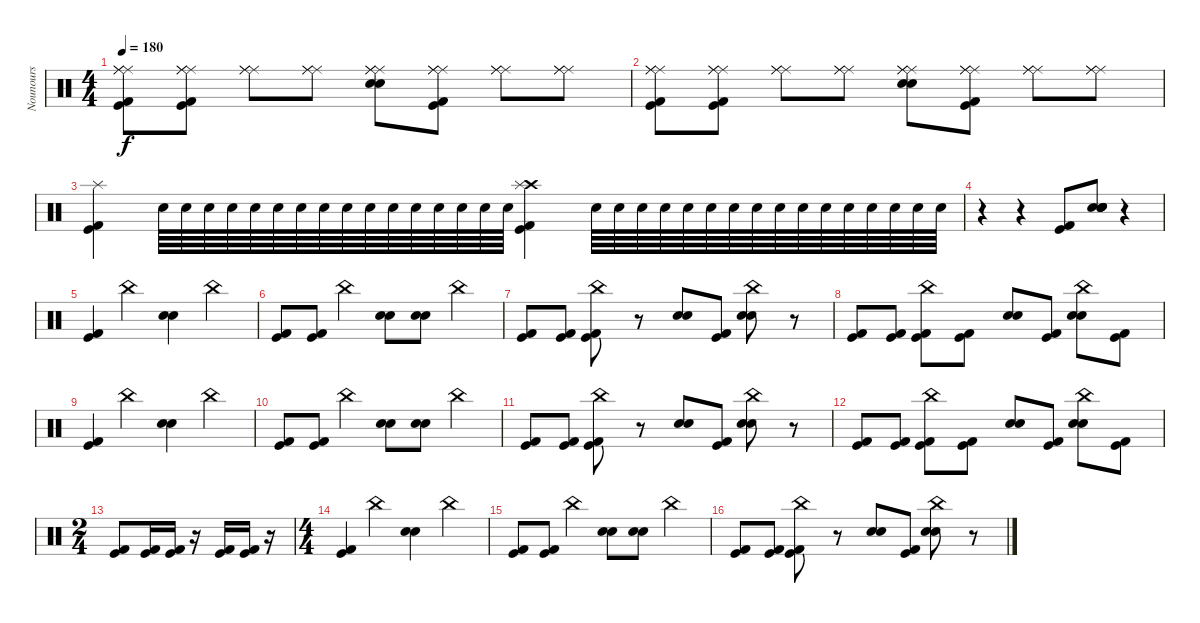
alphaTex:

\track ("Nounours" "Nounours") {instrument percussion}
\staff {score}
\articulation defaults
\ts (4 4)
\tempo 180
\clef neutral
\ks c
("Ride (middle)" "Ride (middle)" "Ride (middle)" "Kick (hit) 2" "Kick (hit)").8{dy f} ("Ride (middle)" "Ride (middle)" "Ride (middle)" "Kick (hit) 2" "Kick (hit)").8 ("Ride (middle)" "Ride (middle)" "Ride (middle)").8 ("Ride (middle)" "Ride (middle)" "Ride (middle)").8 ("Ride (middle)" "Ride (middle)" "Ride (middle)" "Electric Snare (hit)" "Snare (hit) 2").8 ("Ride (middle)" "Ride (middle)" "Kick (hit)" "Kick (hit) 2" "Ride (middle)").8 ("Ride (middle)" "Ride (middle)" "Ride (middle)").8 ("Ride (middle)" "Ride (middle)" "Ride (middle)").8 |
("Ride (middle)" "Ride (middle)" "Ride (middle)" "Kick (hit) 2" "Kick (hit)").8 ("Ride (middle)" "Ride (middle)" "Ride (middle)" "Kick (hit) 2" "Kick (hit)").8 ("Ride (middle)" "Ride (middle)" "Ride (middle)").8 ("Ride (middle)" "Ride (middle)" "Ride (middle)").8 ("Ride (middle)" "Ride (middle)" "Ride (middle)" "Electric Snare (hit)" "Snare (hit) 2").8 ("Ride (middle)" "Ride (middle)" "Kick (hit)" "Kick (hit) 2" "Ride (middle)").8 ("Ride (middle)" "Ride (middle)" "Ride (middle)").8 ("Ride (middle)" "Ride (middle)" "Ride (middle)").8 |
("Splash (hit)" "Kick (hit) 2" "Kick (hit)").4 "Snare (hit) 2".64 "Snare (hit) 2".64 "Snare (hit) 2".64 "Snare (hit) 2".64 "Snare (hit) 2".64 "Snare (hit) 2".64 "Snare (hit) 2".64 "Snare (hit) 2".64 "Snare (hit) 2".64 "Snare (hit) 2".64 "Snare (hit) 2".64 "Snare (hit) 2".64 "Snare (hit) 2".64 "Snare (hit) 2".64 "Snare (hit) 2".64 "Snare (hit) 2".64 ("Crash high (hit)" "Splash (hit)" "Kick (hit)" "Kick (hit) 2").4 "Snare (hit) 2".64 "Snare (hit) 2".64 "Snare (hit) 2".64 "Snare (hit) 2".64 "Snare (hit) 2".64 "Snare (hit) 2".64 "Snare (hit) 2".64 "Snare (hit) 2".64 "Snare (hit) 2".64 "Snare (hit) 2".64 "Snare (hit) 2".64 "Snare (hit) 2".64 "Snare (hit) 2".64 "Snare (hit) 2".64 "Snare (hit) 2".64 "Snare (hit) 2".64 |
r.4 r.4 ("Kick (hit)" "Kick (hit) 2").8 ("Snare (hit) 2" "Electric Snare (hit)" "Electric Snare (hit)" "Snare (hit) 2").8 r.4 |
("Kick (hit) 2" "Kick (hit)").4 "China (hit)".4 ("Electric Snare (hit)" "Snare (hit) 2").4 "China (hit)".4 |
("Kick (hit) 2" "Kick (hit)").8 ("Kick (hit) 2" "Kick (hit)").8 "China (hit)".4 ("Electric Snare (hit)" "Snare (hit) 2").8 ("Electric Snare (hit)" "Snare (hit) 2").8 "China (hit)".4 |
("Kick (hit)" "Kick (hit) 2").8 ("Kick (hit)" "Kick (hit) 2").8 ("China (hit)" "Kick (hit) 2" "Kick (hit)").8 r.8 ("Snare (hit) 2" "Electric Snare (hit)").8 ("Kick (hit) 2" "Kick (hit)").8 ("China (hit)" "Electric Snare (hit)" "Snare (hit) 2").8 r.8 |
("Kick (hit)" "Kick (hit) 2").8 ("Kick (hit)" "Kick (hit) 2").8 ("China (hit)" "Kick (hit) 2" "Kick (hit)").8 ("Kick (hit)" "Kick (hit) 2").8 ("Snare (hit) 2" "Electric Snare (hit)").8 ("Kick (hit) 2" "Kick (hit)").8 ("China (hit)" "Electric Snare (hit)" "Snare (hit) 2").8 ("Kick (hit) 2" "Kick (hit)").8 |
("Kick (hit) 2" "Kick (hit)").4 "China (hit)".4 ("Electric Snare (hit)" "Snare (hit) 2").4 "China (hit)".4 |
("Kick (hit) 2" "Kick (hit)").8 ("Kick (hit) 2" "Kick (hit)").8 "China (hit)".4 ("Electric Snare (hit)" "Snare (hit) 2").8 ("Electric Snare (hit)" "Snare (hit) 2").8 "China (hit)".4 |
("Kick (hit)" "Kick (hit) 2").8 ("Kick (hit)" "Kick (hit) 2").8 ("China (hit)" "Kick (hit) 2" "Kick (hit)").8 r.8 ("Snare (hit) 2" "Electric Snare (hit)").8 ("Kick (hit) 2" "Kick (hit)").8 ("China (hit)" "Electric Snare (hit)" "Snare (hit) 2").8 r.8 |
("Kick (hit)" "Kick (hit) 2").8 ("Kick (hit)" "Kick (hit) 2").8 ("China (hit)" "Kick (hit) 2" "Kick (hit)").8 ("Kick (hit)" "Kick (hit) 2").8 ("Snare (hit) 2" "Electric Snare (hit)").8 ("Kick (hit) 2" "Kick (hit)").8 ("China (hit)" "Electric Snare (hit)" "Snare (hit) 2").8 ("Kick (hit) 2" "Kick (hit)").8 |
\ts (2 4)
("Kick (hit) 2" "Kick (hit)").8 ("Kick (hit)" "Kick (hit) 2").16 ("Kick (hit) 2" "Kick (hit)").16 r.16 ("Kick (hit)" "Kick (hit) 2").16 ("Kick (hit) 2" "Kick (hit)").16 r.16 |
\ts (4 4)
("Kick (hit) 2" "Kick (hit)").4 "China (hit)".4 ("Electric Snare (hit)" "Snare (hit) 2").4 "China (hit)".4 |
("Kick (hit) 2" "Kick (hit)").8 ("Kick (hit) 2" "Kick (hit)").8 "China (hit)".4 ("Electric Snare (hit)" "Snare (hit) 2").8 ("Electric Snare (hit)" "Snare (hit) 2").8 "China (hit)".4 |
("Kick (hit)" "Kick (hit) 2").8 ("Kick (hit)" "Kick (hit) 2").8 ("China (hit)" "Kick (hit) 2" "Kick (hit)").8 r.8 ("Snare (hit) 2" "Electric Snare (hit)").8 ("Kick (hit) 2" "Kick (hit)").8 ("China (hit)" "Electric Snare (hit)" "Snare (hit) 2").8 r.8
